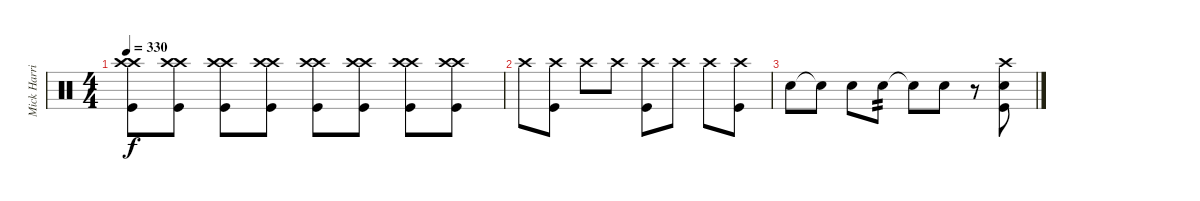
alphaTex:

\track ("Mick Harris" "Mick Harri") {instrument percussion}
\staff {score}
\articulation defaults
\ts (4 4)
\tempo 330
\clef neutral
\ks c
("Crash high (hit)" "Crash high (hit)" "Kick (hit)").8{dy f} ("Crash high (hit)" "Crash high (hit)" "Kick (hit)").8 ("Crash high (hit)" "Crash high (hit)" "Kick (hit)").8 ("Crash high (hit)" "Crash high (hit)" "Kick (hit)").8 ("Crash high (hit)" "Crash high (hit)" "Kick (hit)").8 ("Crash high (hit)" "Crash high (hit)" "Kick (hit)").8 ("Crash high (hit)" "Crash high (hit)" "Kick (hit)").8 ("Crash high (hit)" "Crash high (hit)" "Kick (hit)").8 |
"Crash high (hit)".8 ("Crash high (hit)" "Kick (hit)").8 "Crash high (hit)".8 "Crash high (hit)".8 ("Crash high (hit)" "Kick (hit)").8 "Crash high (hit)".8 "Crash high (hit)".8 ("Crash high (hit)" "Kick (hit)").8 |
"Snare (hit) 2".8 "Snare (hit)"{t}.8 "Snare (hit) 2".8 "Snare (hit) 2".8{tp 2} "Snare (hit)"{t}.8 "Snare (hit) 2".8 r.8 ("Crash high (hit)" "Snare (hit) 2" "Kick (hit)").8
